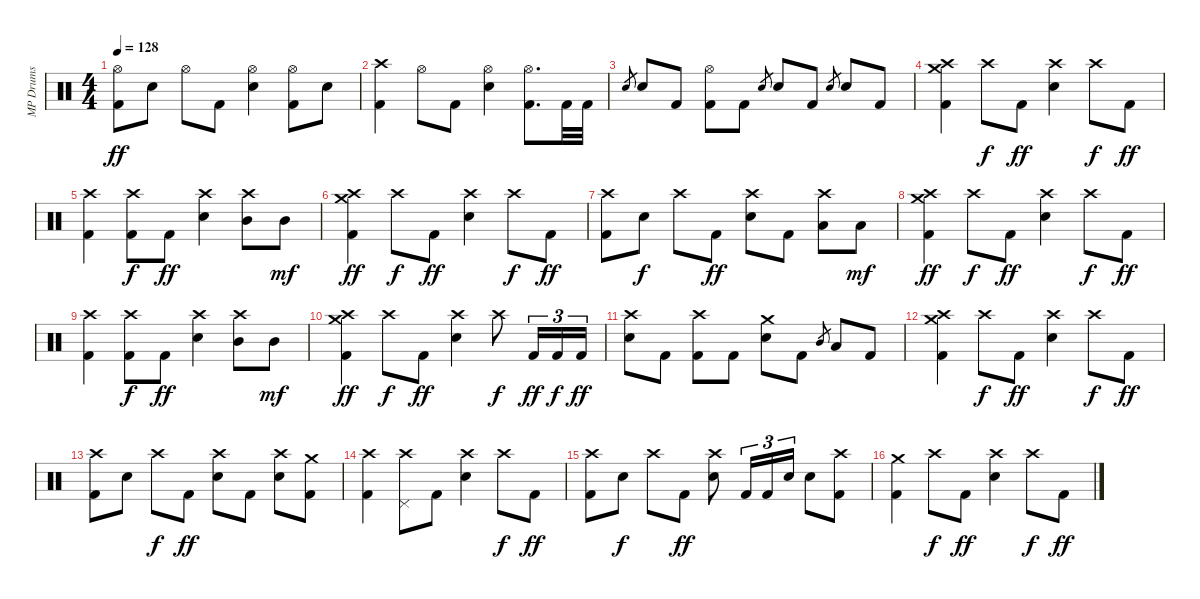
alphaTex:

\track ("MP Drums" "MP Drums") {instrument percussion}
\staff {score}
\articulation defaults
\ts (4 4)
\tempo 128
\clef neutral
\ks c
("Hi-Hat (open)" "Kick (hit) 2").8{dy ff} "Snare (hit) 2".8 "Hi-Hat (open)".8 "Kick (hit) 2".8 ("Hi-Hat (open)" "Snare (hit) 2").4 ("Hi-Hat (open)" "Kick (hit) 2").8 "Snare (hit) 2".8 |
("Crash high (hit)" "Kick (hit) 2").4 "Hi-Hat (open)".8 "Kick (hit) 2".8 ("Hi-Hat (open)" "Snare (hit) 2").4 ("Hi-Hat (open)" "Kick (hit) 2").8{d} "Kick (hit) 2".32 "Kick (hit) 2".32 |
"Snare (hit) 2".8{gr} "Snare (hit) 2".8 "Kick (hit) 2".8 ("Hi-Hat (open)" "Kick (hit) 2").8 "Kick (hit) 2".8 "Snare (hit) 2".8{gr} "Snare (hit) 2".8 "Kick (hit) 2".8 "Snare (hit) 2".8{gr} "Snare (hit) 2".8 "Kick (hit) 2".8 |
("Crash medium (hit)" "Crash high (hit)" "Kick (hit) 2").4 "Crash high (hit)".8{dy f} "Kick (hit) 2".8{dy ff} ("Crash high (hit)" "Snare (hit) 2").4 "Crash high (hit)".8{dy f} "Kick (hit) 2".8{dy ff} |
("Crash high (hit)" "Kick (hit) 2").4 ("Crash high (hit)" "Kick (hit) 2").8{dy f} "Kick (hit) 2".8{dy ff} ("Crash high (hit)" "Snare (hit) 2").4 ("Crash high (hit)" "Mid Tom (hit)").8 "Mid Tom (hit)".8{dy mf} |
("Crash high (hit)" "Crash medium (hit)" "Kick (hit) 2").4{dy ff} "Crash high (hit)".8{dy f} "Kick (hit) 2".8{dy ff} ("Crash high (hit)" "Snare (hit) 2").4 "Crash high (hit)".8{dy f} "Kick (hit) 2".8{dy ff} |
("Crash high (hit)" "Kick (hit) 2").8 "Snare (hit) 2".8{dy f} "Crash high (hit)".8 "Kick (hit) 2".8{dy ff} ("Crash high (hit)" "Snare (hit) 2").8 "Kick (hit) 2".8 ("Crash high (hit)" "Low Tom (hit)").8 "Low Tom (hit)".8{dy mf} |
("Crash high (hit)" "Crash medium (hit)" "Kick (hit) 2").4{dy ff} "Crash high (hit)".8{dy f} "Kick (hit) 2".8{dy ff} ("Crash high (hit)" "Snare (hit) 2").4 "Crash high (hit)".8{dy f} "Kick (hit) 2".8{dy ff} |
("Crash high (hit)" "Kick (hit) 2").4 ("Crash high (hit)" "Kick (hit) 2").8{dy f} "Kick (hit) 2".8{dy ff} ("Crash high (hit)" "Snare (hit) 2").4 ("Crash high (hit)" "Mid Tom (hit)").8 "Mid Tom (hit)".8{dy mf} |
("Crash high (hit)" "Crash medium (hit)" "Kick (hit) 2").4{dy ff} "Crash high (hit)".8{dy f} "Kick (hit) 2".8{dy ff} ("Crash high (hit)" "Snare (hit) 2").4 "Crash high (hit)".8{dy f} "Kick (hit) 2".16{tu (3 2) dy ff} "Kick (hit) 2".16{tu (3 2) dy f} "Kick (hit) 2".16{tu (3 2) dy ff} |
("Crash high (hit)" "Snare (hit) 2").8 "Kick (hit) 2".8 ("Crash high (hit)" "Kick (hit) 2").8 "Kick (hit) 2".8 ("Crash medium (hit)" "Snare (hit) 2").8 "Kick (hit) 2".8 "Mid Tom (hit)".8{gr} "Low Tom (hit)".8 "Kick (hit) 2".8 |
("Crash medium (hit)" "Crash high (hit)" "Kick (hit) 2").4 "Crash high (hit)".8{dy f} "Kick (hit) 2".8{dy ff} ("Crash high (hit)" "Snare (hit) 2").4 "Crash high (hit)".8{dy f} "Kick (hit) 2".8{dy ff} |
("Crash high (hit)" "Kick (hit) 2").8 "Snare (hit) 2".8 "Crash high (hit)".8{dy f} "Kick (hit) 2".8{dy ff} ("Crash high (hit)" "Snare (hit) 2").8 "Kick (hit) 2".8 ("Crash high (hit)" "Snare (hit) 2").8 ("Crash medium (hit)" "Kick (hit) 2").8 |
("Crash high (hit)" "Kick (hit) 2").4 ("Crash high (hit)" "Pedal Hi-Hat (hit)").8 "Kick (hit) 2".8 ("Crash high (hit)" "Snare (hit) 2").4 "Crash high (hit)".8{dy f} "Kick (hit) 2".8{dy ff} |
("Crash high (hit)" "Kick (hit) 2").8 "Snare (hit) 2".8{dy f} "Crash high (hit)".8 "Kick (hit) 2".8{dy ff} ("Crash high (hit)" "Snare (hit) 2").8 "Kick (hit) 2".16{tu (3 2)} "Kick (hit) 2".16{tu (3 2)} "Snare (hit) 2".16{tu (3 2)} "Snare (hit) 2".8 ("Crash high (hit)" "Kick (hit) 2").8 |
("Crash medium (hit)" "Kick (hit) 2").4 "Crash high (hit)".8{dy f} "Kick (hit) 2".8{dy ff} ("Crash high (hit)" "Snare (hit) 2").4 "Crash high (hit)".8{dy f} "Kick (hit) 2".8{dy ff}
